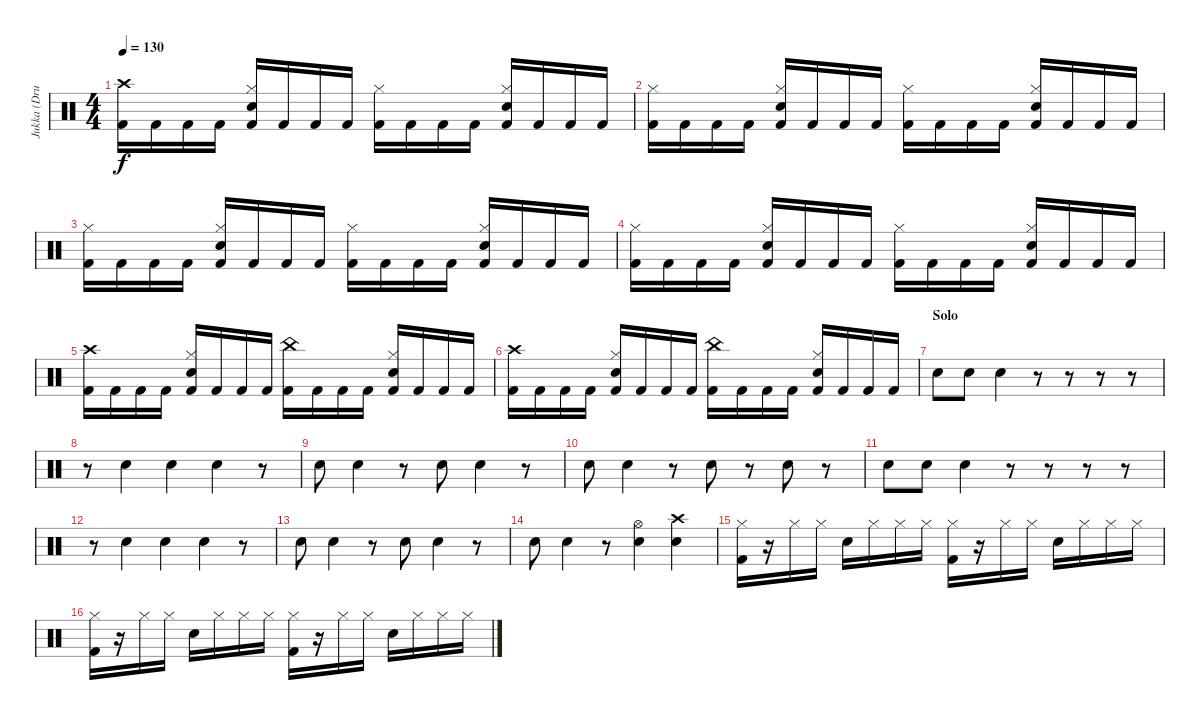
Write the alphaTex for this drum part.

\track ("Jukka (Drums)" "Jukka (Dru") {instrument percussion}
\staff {score}
\articulation defaults
\ts (4 4)
\tempo 130
\clef neutral
\ks c
("Crash high (hit)" "Kick (hit) 2").16{dy f} "Kick (hit) 2".16 "Kick (hit) 2".16 "Kick (hit) 2".16 ("Hi-Hat (closed)" "Electric Snare (hit)" "Kick (hit) 2").16 "Kick (hit) 2".16 "Kick (hit) 2".16 "Kick (hit) 2".16 ("Hi-Hat (closed)" "Kick (hit) 2").16 "Kick (hit) 2".16 "Kick (hit) 2".16 "Kick (hit) 2".16 ("Hi-Hat (closed)" "Electric Snare (hit)" "Kick (hit) 2").16 "Kick (hit) 2".16 "Kick (hit) 2".16 "Kick (hit) 2".16 |
("Hi-Hat (closed)" "Kick (hit) 2").16 "Kick (hit) 2".16 "Kick (hit) 2".16 "Kick (hit) 2".16 ("Hi-Hat (closed)" "Electric Snare (hit)" "Kick (hit) 2").16 "Kick (hit) 2".16 "Kick (hit) 2".16 "Kick (hit) 2".16 ("Hi-Hat (closed)" "Kick (hit) 2").16 "Kick (hit) 2".16 "Kick (hit) 2".16 "Kick (hit) 2".16 ("Hi-Hat (closed)" "Electric Snare (hit)" "Kick (hit) 2").16 "Kick (hit) 2".16 "Kick (hit) 2".16 "Kick (hit) 2".16 |
("Hi-Hat (closed)" "Kick (hit) 2").16 "Kick (hit) 2".16 "Kick (hit) 2".16 "Kick (hit) 2".16 ("Hi-Hat (closed)" "Electric Snare (hit)" "Kick (hit) 2").16 "Kick (hit) 2".16 "Kick (hit) 2".16 "Kick (hit) 2".16 ("Hi-Hat (closed)" "Kick (hit) 2").16 "Kick (hit) 2".16 "Kick (hit) 2".16 "Kick (hit) 2".16 ("Hi-Hat (closed)" "Electric Snare (hit)" "Kick (hit) 2").16 "Kick (hit) 2".16 "Kick (hit) 2".16 "Kick (hit) 2".16 |
("Hi-Hat (closed)" "Kick (hit) 2").16 "Kick (hit) 2".16 "Kick (hit) 2".16 "Kick (hit) 2".16 ("Hi-Hat (closed)" "Electric Snare (hit)" "Kick (hit) 2").16 "Kick (hit) 2".16 "Kick (hit) 2".16 "Kick (hit) 2".16 ("Hi-Hat (closed)" "Kick (hit) 2").16 "Kick (hit) 2".16 "Kick (hit) 2".16 "Kick (hit) 2".16 ("Hi-Hat (closed)" "Electric Snare (hit)" "Kick (hit) 2").16 "Kick (hit) 2".16 "Kick (hit) 2".16 "Kick (hit) 2".16 |
("Crash high (hit)" "Kick (hit) 2").16 "Kick (hit) 2".16 "Kick (hit) 2".16 "Kick (hit) 2".16 ("Hi-Hat (closed)" "Electric Snare (hit)" "Kick (hit) 2").16 "Kick (hit) 2".16 "Kick (hit) 2".16 "Kick (hit) 2".16 ("China (hit)" "Kick (hit) 2").16 "Kick (hit) 2".16 "Kick (hit) 2".16 "Kick (hit) 2".16 ("Hi-Hat (closed)" "Electric Snare (hit)" "Kick (hit) 2").16 "Kick (hit) 2".16 "Kick (hit) 2".16 "Kick (hit) 2".16 |
("Crash high (hit)" "Kick (hit) 2").16 "Kick (hit) 2".16 "Kick (hit) 2".16 "Kick (hit) 2".16 ("Hi-Hat (closed)" "Electric Snare (hit)" "Kick (hit) 2").16 "Kick (hit) 2".16 "Kick (hit) 2".16 "Kick (hit) 2".16 ("China (hit)" "Kick (hit) 2").16 "Kick (hit) 2".16 "Kick (hit) 2".16 "Kick (hit) 2".16 ("Hi-Hat (closed)" "Electric Snare (hit)" "Kick (hit) 2").16 "Kick (hit) 2".16 "Kick (hit) 2".16 "Kick (hit) 2".16 |
\section ("" "Solo")
"Electric Snare (hit)".8 "Electric Snare (hit)".8 "Electric Snare (hit)".4 r.8 r.8 r.8 r.8 |
r.8 "Electric Snare (hit)".4 "Electric Snare (hit)".4 "Electric Snare (hit)".4 r.8 |
"Electric Snare (hit)".8 "Electric Snare (hit)".4 r.8 "Electric Snare (hit)".8 "Electric Snare (hit)".4 r.8 |
"Electric Snare (hit)".8 "Electric Snare (hit)".4 r.8 "Electric Snare (hit)".8 r.8 "Electric Snare (hit)".8 r.8 |
"Electric Snare (hit)".8 "Electric Snare (hit)".8 "Electric Snare (hit)".4 r.8 r.8 r.8 r.8 |
r.8 "Electric Snare (hit)".4 "Electric Snare (hit)".4 "Electric Snare (hit)".4 r.8 |
"Electric Snare (hit)".8 "Electric Snare (hit)".4 r.8 "Electric Snare (hit)".8 "Electric Snare (hit)".4 r.8 |
"Electric Snare (hit)".8 "Electric Snare (hit)".4 r.8 ("Hi-Hat (open)" "Electric Snare (hit)").4 ("Crash high (hit)" "Electric Snare (hit)").4 |
("Hi-Hat (closed)" "Kick (hit) 2").16 r.16 "Hi-Hat (closed)".16 "Hi-Hat (closed)".16 "Electric Snare (hit)".16 "Hi-Hat (closed)".16 "Hi-Hat (closed)".16 "Hi-Hat (closed)".16 ("Hi-Hat (closed)" "Kick (hit) 2").16 r.16 "Hi-Hat (closed)".16 "Hi-Hat (closed)".16 "Electric Snare (hit)".16 "Hi-Hat (closed)".16 "Hi-Hat (closed)".16 "Hi-Hat (closed)".16 |
("Hi-Hat (closed)" "Kick (hit) 2").16 r.16 "Hi-Hat (closed)".16 "Hi-Hat (closed)".16 "Electric Snare (hit)".16 "Hi-Hat (closed)".16 "Hi-Hat (closed)".16 "Hi-Hat (closed)".16 ("Hi-Hat (closed)" "Kick (hit) 2").16 r.16 "Hi-Hat (closed)".16 "Hi-Hat (closed)".16 "Electric Snare (hit)".16 "Hi-Hat (closed)".16 "Hi-Hat (closed)".16 "Hi-Hat (closed)".16
